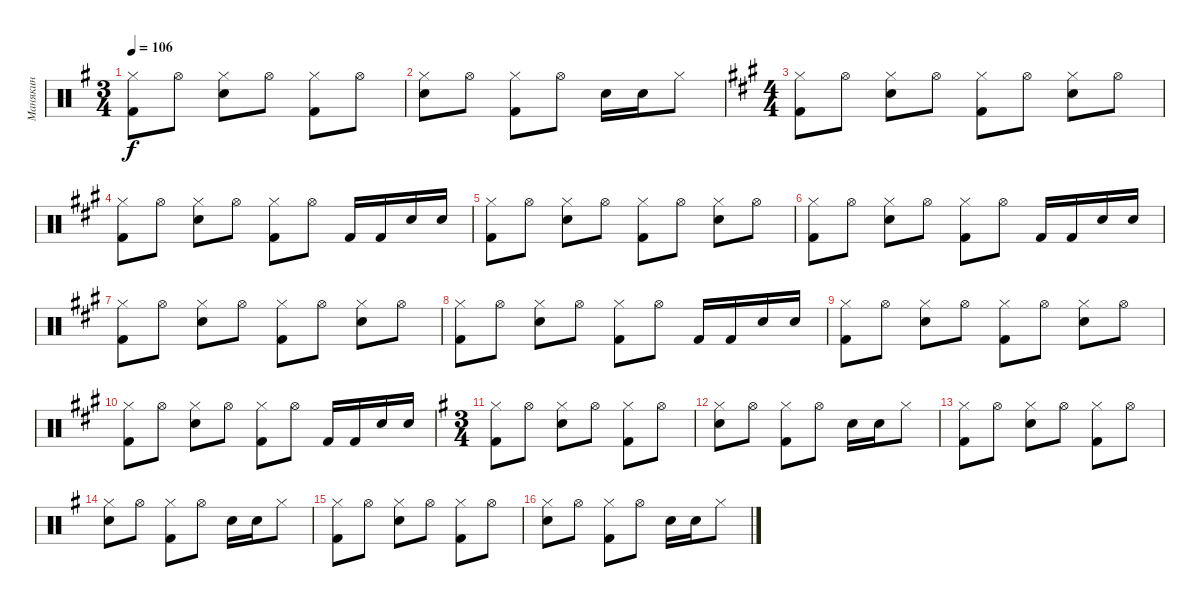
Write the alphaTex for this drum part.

\track ("Манякин" "Манякин") {instrument percussion}
\staff {score}
\articulation defaults
\ts (3 4)
\tempo 106
\clef neutral
\ks g
("Hi-Hat (closed)" "Kick (hit) 2").8{dy f} "Hi-Hat (open)".8 ("Hi-Hat (closed)" "Electric Snare (hit)").8 "Hi-Hat (open)".8 ("Hi-Hat (closed)" "Kick (hit) 2").8 "Hi-Hat (open)".8 |
("Hi-Hat (closed)" "Electric Snare (hit)").8 "Hi-Hat (open)".8 ("Hi-Hat (closed)" "Kick (hit) 2").8 "Hi-Hat (open)".8 "Electric Snare (hit)".16 "Electric Snare (hit)".16 "Hi-Hat (closed)".8 |
\ts (4 4)
\ks a
("Hi-Hat (closed)" "Kick (hit) 2").8 "Hi-Hat (open)".8 ("Hi-Hat (closed)" "Electric Snare (hit)").8 "Hi-Hat (open)".8 ("Hi-Hat (closed)" "Kick (hit) 2").8 "Hi-Hat (open)".8 ("Hi-Hat (closed)" "Electric Snare (hit)").8 "Hi-Hat (open)".8 |
("Hi-Hat (closed)" "Kick (hit) 2").8 "Hi-Hat (open)".8 ("Hi-Hat (closed)" "Electric Snare (hit)").8 "Hi-Hat (open)".8 ("Hi-Hat (closed)" "Kick (hit) 2").8 "Hi-Hat (open)".8 "Kick (hit) 2".16 "Kick (hit) 2".16 "Electric Snare (hit)".16 "Electric Snare (hit)".16 |
("Hi-Hat (closed)" "Kick (hit) 2").8 "Hi-Hat (open)".8 ("Hi-Hat (closed)" "Electric Snare (hit)").8 "Hi-Hat (open)".8 ("Hi-Hat (closed)" "Kick (hit) 2").8 "Hi-Hat (open)".8 ("Hi-Hat (closed)" "Electric Snare (hit)").8 "Hi-Hat (open)".8 |
("Hi-Hat (closed)" "Kick (hit) 2").8 "Hi-Hat (open)".8 ("Hi-Hat (closed)" "Electric Snare (hit)").8 "Hi-Hat (open)".8 ("Hi-Hat (closed)" "Kick (hit) 2").8 "Hi-Hat (open)".8 "Kick (hit) 2".16 "Kick (hit) 2".16 "Electric Snare (hit)".16 "Electric Snare (hit)".16 |
("Hi-Hat (closed)" "Kick (hit) 2").8 "Hi-Hat (open)".8 ("Hi-Hat (closed)" "Electric Snare (hit)").8 "Hi-Hat (open)".8 ("Hi-Hat (closed)" "Kick (hit) 2").8 "Hi-Hat (open)".8 ("Hi-Hat (closed)" "Electric Snare (hit)").8 "Hi-Hat (open)".8 |
("Hi-Hat (closed)" "Kick (hit) 2").8 "Hi-Hat (open)".8 ("Hi-Hat (closed)" "Electric Snare (hit)").8 "Hi-Hat (open)".8 ("Hi-Hat (closed)" "Kick (hit) 2").8 "Hi-Hat (open)".8 "Kick (hit) 2".16 "Kick (hit) 2".16 "Electric Snare (hit)".16 "Electric Snare (hit)".16 |
("Hi-Hat (closed)" "Kick (hit) 2").8 "Hi-Hat (open)".8 ("Hi-Hat (closed)" "Electric Snare (hit)").8 "Hi-Hat (open)".8 ("Hi-Hat (closed)" "Kick (hit) 2").8 "Hi-Hat (open)".8 ("Hi-Hat (closed)" "Electric Snare (hit)").8 "Hi-Hat (open)".8 |
("Hi-Hat (closed)" "Kick (hit) 2").8 "Hi-Hat (open)".8 ("Hi-Hat (closed)" "Electric Snare (hit)").8 "Hi-Hat (open)".8 ("Hi-Hat (closed)" "Kick (hit) 2").8 "Hi-Hat (open)".8 "Kick (hit) 2".16 "Kick (hit) 2".16 "Electric Snare (hit)".16 "Electric Snare (hit)".16 |
\ts (3 4)
\ks g
("Hi-Hat (closed)" "Kick (hit) 2").8 "Hi-Hat (open)".8 ("Hi-Hat (closed)" "Electric Snare (hit)").8 "Hi-Hat (open)".8 ("Hi-Hat (closed)" "Kick (hit) 2").8 "Hi-Hat (open)".8 |
("Hi-Hat (closed)" "Electric Snare (hit)").8 "Hi-Hat (open)".8 ("Hi-Hat (closed)" "Kick (hit) 2").8 "Hi-Hat (open)".8 "Electric Snare (hit)".16 "Electric Snare (hit)".16 "Hi-Hat (closed)".8 |
("Hi-Hat (closed)" "Kick (hit) 2").8 "Hi-Hat (open)".8 ("Hi-Hat (closed)" "Electric Snare (hit)").8 "Hi-Hat (open)".8 ("Hi-Hat (closed)" "Kick (hit) 2").8 "Hi-Hat (open)".8 |
("Hi-Hat (closed)" "Electric Snare (hit)").8 "Hi-Hat (open)".8 ("Hi-Hat (closed)" "Kick (hit) 2").8 "Hi-Hat (open)".8 "Electric Snare (hit)".16 "Electric Snare (hit)".16 "Hi-Hat (closed)".8 |
("Hi-Hat (closed)" "Kick (hit) 2").8 "Hi-Hat (open)".8 ("Hi-Hat (closed)" "Electric Snare (hit)").8 "Hi-Hat (open)".8 ("Hi-Hat (closed)" "Kick (hit) 2").8 "Hi-Hat (open)".8 |
("Hi-Hat (closed)" "Electric Snare (hit)").8 "Hi-Hat (open)".8 ("Hi-Hat (closed)" "Kick (hit) 2").8 "Hi-Hat (open)".8 "Electric Snare (hit)".16 "Electric Snare (hit)".16 "Hi-Hat (closed)".8
